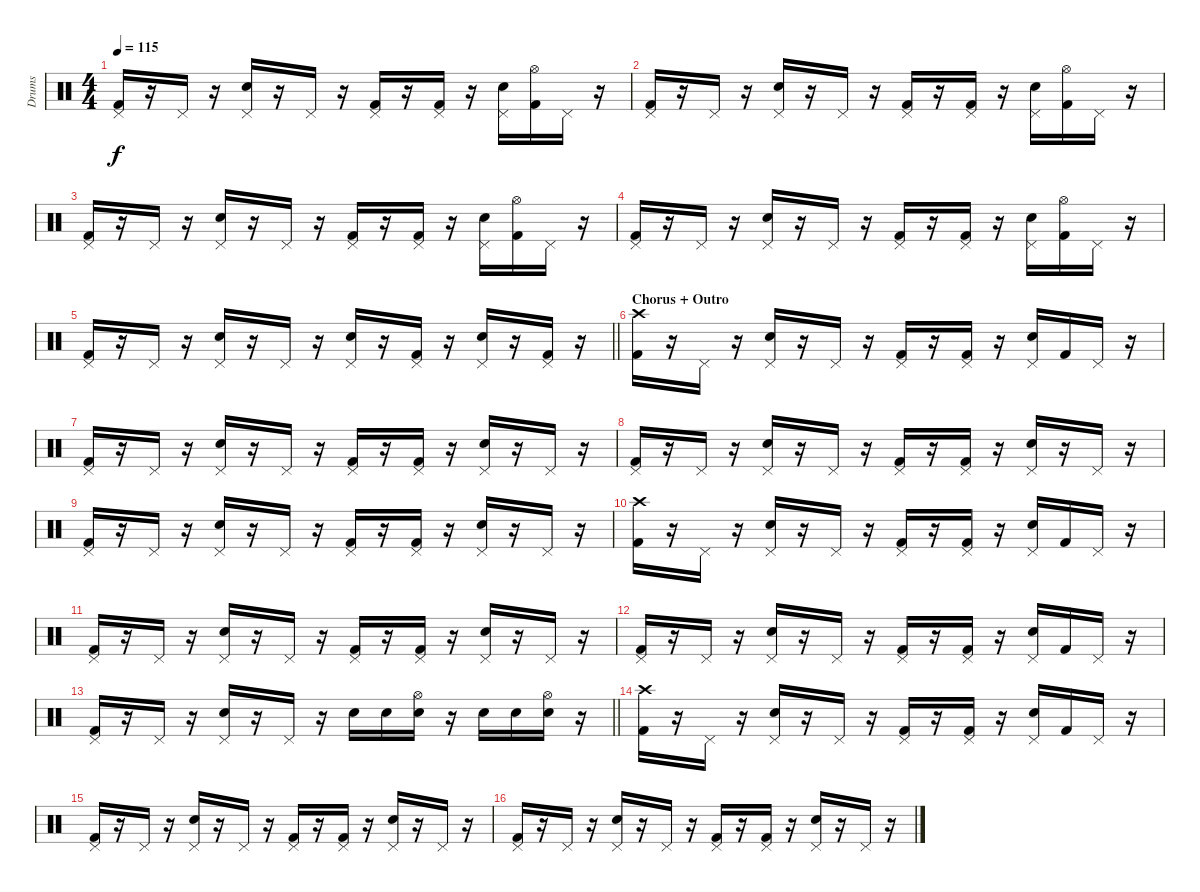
\track ("Drums" "Drums") {instrument percussion}
\staff {score}
\articulation defaults
\ts (4 4)
\tempo 115
\clef neutral
\ks c
("Pedal Hi-Hat (hit)" "Kick (hit) 2").16{dy f} r.16 "Pedal Hi-Hat (hit)".16 r.16 ("Pedal Hi-Hat (hit)" "Snare (hit) 2").16 r.16 "Pedal Hi-Hat (hit)".16 r.16 ("Pedal Hi-Hat (hit)" "Kick (hit) 2").16 r.16 ("Pedal Hi-Hat (hit)" "Kick (hit) 2").16 r.16 ("Pedal Hi-Hat (hit)" "Snare (hit) 2").16 ("Hi-Hat (open)" "Kick (hit) 2").16 "Pedal Hi-Hat (hit)".16 r.16 |
("Pedal Hi-Hat (hit)" "Kick (hit) 2").16 r.16 "Pedal Hi-Hat (hit)".16 r.16 ("Pedal Hi-Hat (hit)" "Snare (hit) 2").16 r.16 "Pedal Hi-Hat (hit)".16 r.16 ("Pedal Hi-Hat (hit)" "Kick (hit) 2").16 r.16 ("Pedal Hi-Hat (hit)" "Kick (hit) 2").16 r.16 ("Pedal Hi-Hat (hit)" "Snare (hit) 2").16 ("Hi-Hat (open)" "Kick (hit) 2").16 "Pedal Hi-Hat (hit)".16 r.16 |
("Pedal Hi-Hat (hit)" "Kick (hit) 2").16 r.16 "Pedal Hi-Hat (hit)".16 r.16 ("Pedal Hi-Hat (hit)" "Snare (hit) 2").16 r.16 "Pedal Hi-Hat (hit)".16 r.16 ("Pedal Hi-Hat (hit)" "Kick (hit) 2").16 r.16 ("Pedal Hi-Hat (hit)" "Kick (hit) 2").16 r.16 ("Pedal Hi-Hat (hit)" "Snare (hit) 2").16 ("Hi-Hat (open)" "Kick (hit) 2").16 "Pedal Hi-Hat (hit)".16 r.16 |
("Pedal Hi-Hat (hit)" "Kick (hit) 2").16 r.16 "Pedal Hi-Hat (hit)".16 r.16 ("Pedal Hi-Hat (hit)" "Snare (hit) 2").16 r.16 "Pedal Hi-Hat (hit)".16 r.16 ("Pedal Hi-Hat (hit)" "Kick (hit) 2").16 r.16 ("Pedal Hi-Hat (hit)" "Kick (hit) 2").16 r.16 ("Pedal Hi-Hat (hit)" "Snare (hit) 2").16 ("Hi-Hat (open)" "Kick (hit) 2").16 "Pedal Hi-Hat (hit)".16 r.16 |
\barLineRight lightlight
("Pedal Hi-Hat (hit)" "Kick (hit) 2").16 r.16 "Pedal Hi-Hat (hit)".16 r.16 ("Pedal Hi-Hat (hit)" "Snare (hit) 2").16 r.16 "Pedal Hi-Hat (hit)".16 r.16 ("Pedal Hi-Hat (hit)" "Snare (hit) 2").16 r.16 ("Pedal Hi-Hat (hit)" "Kick (hit) 2").16 r.16 ("Pedal Hi-Hat (hit)" "Snare (hit) 2").16 r.16 ("Pedal Hi-Hat (hit)" "Kick (hit) 2").16 r.16 |
\section ("" "Chorus + Outro")
("Crash high (hit)" "Kick (hit) 2").16 r.16 "Pedal Hi-Hat (hit)".16 r.16 ("Pedal Hi-Hat (hit)" "Snare (hit) 2").16 r.16 "Pedal Hi-Hat (hit)".16 r.16 ("Pedal Hi-Hat (hit)" "Kick (hit) 2").16 r.16 ("Pedal Hi-Hat (hit)" "Kick (hit) 2").16 r.16 ("Pedal Hi-Hat (hit)" "Snare (hit) 2").16 "Kick (hit) 2".16 "Pedal Hi-Hat (hit)".16 r.16 |
("Pedal Hi-Hat (hit)" "Kick (hit) 2").16 r.16 "Pedal Hi-Hat (hit)".16 r.16 ("Pedal Hi-Hat (hit)" "Snare (hit) 2").16 r.16 "Pedal Hi-Hat (hit)".16 r.16 ("Pedal Hi-Hat (hit)" "Kick (hit) 2").16 r.16 ("Pedal Hi-Hat (hit)" "Kick (hit) 2").16 r.16 ("Pedal Hi-Hat (hit)" "Snare (hit) 2").16 r.16 "Pedal Hi-Hat (hit)".16 r.16 |
("Pedal Hi-Hat (hit)" "Kick (hit) 2").16 r.16 "Pedal Hi-Hat (hit)".16 r.16 ("Pedal Hi-Hat (hit)" "Snare (hit) 2").16 r.16 "Pedal Hi-Hat (hit)".16 r.16 ("Pedal Hi-Hat (hit)" "Kick (hit) 2").16 r.16 ("Pedal Hi-Hat (hit)" "Kick (hit) 2").16 r.16 ("Pedal Hi-Hat (hit)" "Snare (hit) 2").16 r.16 "Pedal Hi-Hat (hit)".16 r.16 |
("Pedal Hi-Hat (hit)" "Kick (hit) 2").16 r.16 "Pedal Hi-Hat (hit)".16 r.16 ("Pedal Hi-Hat (hit)" "Snare (hit) 2").16 r.16 "Pedal Hi-Hat (hit)".16 r.16 ("Pedal Hi-Hat (hit)" "Kick (hit) 2").16 r.16 ("Pedal Hi-Hat (hit)" "Kick (hit) 2").16 r.16 ("Pedal Hi-Hat (hit)" "Snare (hit) 2").16 r.16 "Pedal Hi-Hat (hit)".16 r.16 |
("Crash high (hit)" "Kick (hit) 2").16 r.16 "Pedal Hi-Hat (hit)".16 r.16 ("Pedal Hi-Hat (hit)" "Snare (hit) 2").16 r.16 "Pedal Hi-Hat (hit)".16 r.16 ("Pedal Hi-Hat (hit)" "Kick (hit) 2").16 r.16 ("Pedal Hi-Hat (hit)" "Kick (hit) 2").16 r.16 ("Pedal Hi-Hat (hit)" "Snare (hit) 2").16 "Kick (hit) 2".16 "Pedal Hi-Hat (hit)".16 r.16 |
("Pedal Hi-Hat (hit)" "Kick (hit) 2").16 r.16 "Pedal Hi-Hat (hit)".16 r.16 ("Pedal Hi-Hat (hit)" "Snare (hit) 2").16 r.16 "Pedal Hi-Hat (hit)".16 r.16 ("Pedal Hi-Hat (hit)" "Kick (hit) 2").16 r.16 ("Pedal Hi-Hat (hit)" "Kick (hit) 2").16 r.16 ("Pedal Hi-Hat (hit)" "Snare (hit) 2").16 r.16 "Pedal Hi-Hat (hit)".16 r.16 |
("Pedal Hi-Hat (hit)" "Kick (hit) 2").16 r.16 "Pedal Hi-Hat (hit)".16 r.16 ("Pedal Hi-Hat (hit)" "Snare (hit) 2").16 r.16 "Pedal Hi-Hat (hit)".16 r.16 ("Pedal Hi-Hat (hit)" "Kick (hit) 2").16 r.16 ("Pedal Hi-Hat (hit)" "Kick (hit) 2").16 r.16 ("Pedal Hi-Hat (hit)" "Snare (hit) 2").16 "Kick (hit) 2".16 "Pedal Hi-Hat (hit)".16 r.16 |
\barLineRight lightlight
("Pedal Hi-Hat (hit)" "Kick (hit) 2").16 r.16 "Pedal Hi-Hat (hit)".16 r.16 ("Pedal Hi-Hat (hit)" "Snare (hit) 2").16 r.16 "Pedal Hi-Hat (hit)".16 r.16 "Snare (hit) 2".16 "Snare (hit) 2".16 ("Hi-Hat (open)" "Snare (hit) 2").16 r.16 "Snare (hit) 2".16 "Snare (hit) 2".16 ("Hi-Hat (open)" "Snare (hit) 2").16 r.16 |
("Crash high (hit)" "Kick (hit) 2").16 r.16 "Pedal Hi-Hat (hit)".16 r.16 ("Pedal Hi-Hat (hit)" "Snare (hit) 2").16 r.16 "Pedal Hi-Hat (hit)".16 r.16 ("Pedal Hi-Hat (hit)" "Kick (hit) 2").16 r.16 ("Pedal Hi-Hat (hit)" "Kick (hit) 2").16 r.16 ("Pedal Hi-Hat (hit)" "Snare (hit) 2").16 "Kick (hit) 2".16 "Pedal Hi-Hat (hit)".16 r.16 |
("Pedal Hi-Hat (hit)" "Kick (hit) 2").16 r.16 "Pedal Hi-Hat (hit)".16 r.16 ("Pedal Hi-Hat (hit)" "Snare (hit) 2").16 r.16 "Pedal Hi-Hat (hit)".16 r.16 ("Pedal Hi-Hat (hit)" "Kick (hit) 2").16 r.16 ("Pedal Hi-Hat (hit)" "Kick (hit) 2").16 r.16 ("Pedal Hi-Hat (hit)" "Snare (hit) 2").16 r.16 "Pedal Hi-Hat (hit)".16 r.16 |
("Pedal Hi-Hat (hit)" "Kick (hit) 2").16 r.16 "Pedal Hi-Hat (hit)".16 r.16 ("Pedal Hi-Hat (hit)" "Snare (hit) 2").16 r.16 "Pedal Hi-Hat (hit)".16 r.16 ("Pedal Hi-Hat (hit)" "Kick (hit) 2").16 r.16 ("Pedal Hi-Hat (hit)" "Kick (hit) 2").16 r.16 ("Pedal Hi-Hat (hit)" "Snare (hit) 2").16 r.16 "Pedal Hi-Hat (hit)".16 r.16
